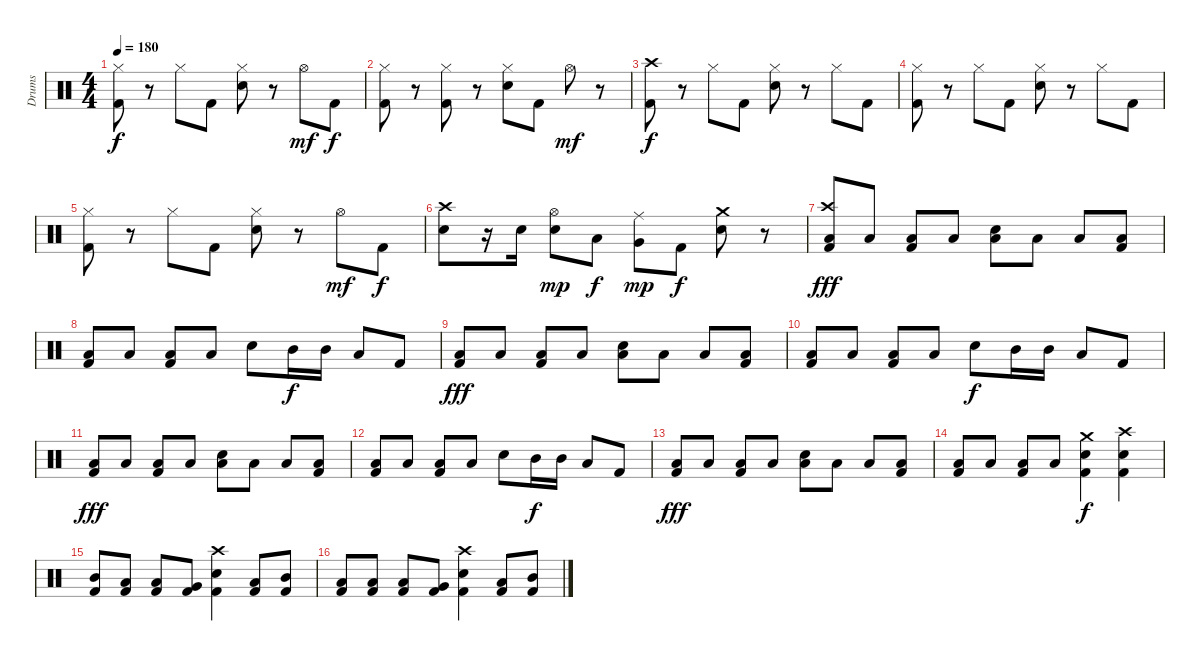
\track ("Drums" "Drums") {instrument percussion}
\staff {score}
\articulation defaults
\ts (4 4)
\tempo 180
\clef neutral
\ks c
("Hi-Hat (closed)" "Kick (hit) 2").8{dy f} r.8 "Hi-Hat (closed)".8 "Kick (hit) 2".8 ("Hi-Hat (closed)" "Electric Snare (hit)").8 r.8 "Hi-Hat (open)".8{dy mf} "Kick (hit) 2".8{dy f} |
("Hi-Hat (closed)" "Kick (hit) 2").8 r.8 ("Hi-Hat (closed)" "Kick (hit) 2").8 r.8 ("Hi-Hat (closed)" "Electric Snare (hit)").8 "Kick (hit) 2".8 "Hi-Hat (open)".8{dy mf} r.8 |
("Crash high (hit)" "Kick (hit) 2").8{dy f} r.8 "Hi-Hat (closed)".8 "Kick (hit) 2".8 ("Hi-Hat (closed)" "Electric Snare (hit)").8 r.8 "Hi-Hat (closed)".8 "Kick (hit) 2".8 |
("Hi-Hat (closed)" "Kick (hit) 2").8 r.8 "Hi-Hat (closed)".8 "Kick (hit) 2".8 ("Hi-Hat (closed)" "Electric Snare (hit)").8 r.8 "Hi-Hat (closed)".8 "Kick (hit) 2".8 |
("Hi-Hat (closed)" "Kick (hit) 2").8 r.8 "Hi-Hat (closed)".8 "Kick (hit) 2".8 ("Hi-Hat (closed)" "Electric Snare (hit)").8 r.8 "Hi-Hat (open)".8{dy mf} "Kick (hit) 2".8{dy f} |
("Crash high (hit)" "Electric Snare (hit)").8 r.16 "Electric Snare (hit)".16 ("Hi-Hat (open)" "Electric Snare (hit)").8{dy mp} "Low Tom (hit)".8{dy f} ("Ride (middle)" "Very Low Tom (hit)").8{dy mp} "Kick (hit) 2".8{dy f} ("Crash medium (hit)" "Electric Snare (hit)").8 r.8 |
("Crash high (hit)" "Kick (hit) 2" "Low Floor Tom (hit)").8{dy fff volume 16} "Low Floor Tom (hit)".8 ("Kick (hit) 2" "Low Floor Tom (hit)").8 "Low Floor Tom (hit)".8 ("Electric Snare (hit)" "Low Floor Tom (hit)").8 "Low Floor Tom (hit)".8 "Low Floor Tom (hit)".8 ("Kick (hit) 2" "Low Floor Tom (hit)").8 |
("Kick (hit) 2" "Low Floor Tom (hit)").8 "Low Floor Tom (hit)".8 ("Kick (hit) 2" "Low Floor Tom (hit)").8 "Low Floor Tom (hit)".8 "Electric Snare (hit)".8 "Mid Tom (hit)".16{dy f} "Mid Tom (hit)".16 "Low Tom (hit)".8 "Kick (hit) 2".8 |
("Kick (hit) 2" "Low Floor Tom (hit)").8{dy fff} "Low Floor Tom (hit)".8 ("Kick (hit) 2" "Low Floor Tom (hit)").8 "Low Floor Tom (hit)".8 ("Electric Snare (hit)" "Low Floor Tom (hit)").8 "Low Floor Tom (hit)".8 "Low Floor Tom (hit)".8 ("Kick (hit) 2" "Low Floor Tom (hit)").8 |
("Kick (hit) 2" "Low Floor Tom (hit)").8 "Low Floor Tom (hit)".8 ("Kick (hit) 2" "Low Floor Tom (hit)").8 "Low Floor Tom (hit)".8 "Electric Snare (hit)".8{dy f} "Mid Tom (hit)".16 "Mid Tom (hit)".16 "Low Tom (hit)".8 "Kick (hit) 2".8 |
("Kick (hit) 2" "Low Floor Tom (hit)").8{dy fff volume 16} "Low Floor Tom (hit)".8 ("Kick (hit) 2" "Low Floor Tom (hit)").8 "Low Floor Tom (hit)".8 ("Electric Snare (hit)" "Low Floor Tom (hit)").8 "Low Floor Tom (hit)".8 "Low Floor Tom (hit)".8 ("Kick (hit) 2" "Low Floor Tom (hit)").8 |
("Kick (hit) 2" "Low Floor Tom (hit)").8 "Low Floor Tom (hit)".8 ("Kick (hit) 2" "Low Floor Tom (hit)").8 "Low Floor Tom (hit)".8 "Electric Snare (hit)".8 "Mid Tom (hit)".16{dy f} "Mid Tom (hit)".16 "Low Tom (hit)".8 "Kick (hit) 2".8 |
("Kick (hit) 2" "Low Floor Tom (hit)").8{dy fff} "Low Floor Tom (hit)".8 ("Kick (hit) 2" "Low Floor Tom (hit)").8 "Low Floor Tom (hit)".8 ("Electric Snare (hit)" "Low Floor Tom (hit)").8 "Low Floor Tom (hit)".8 "Low Floor Tom (hit)".8 ("Kick (hit) 2" "Low Floor Tom (hit)").8 |
("Kick (hit) 2" "Low Floor Tom (hit)").8 "Low Floor Tom (hit)".8 ("Kick (hit) 2" "Low Floor Tom (hit)").8 "Low Floor Tom (hit)".8 ("Crash medium (hit)" "Electric Snare (hit)" "Kick (hit) 2").4{dy f} ("Crash high (hit)" "Electric Snare (hit)" "Kick (hit) 2").4 |
("Mid Tom (hit)" "Kick (hit) 2").8 ("Low Tom (hit)" "Kick (hit) 2").8 ("Low Tom (hit)" "Kick (hit) 2").8 ("Very Low Tom (hit)" "Kick (hit) 2").8 ("Crash high (hit)" "Electric Snare (hit)" "Kick (hit) 2").4 ("Low Tom (hit)" "Kick (hit) 2").8 ("Mid Tom (hit)" "Kick (hit) 2").8 |
("Low Tom (hit)" "Kick (hit) 2").8 ("Low Tom (hit)" "Kick (hit) 2").8 ("Low Tom (hit)" "Kick (hit) 2").8 ("Very Low Tom (hit)" "Kick (hit) 2").8 ("Crash high (hit)" "Electric Snare (hit)" "Kick (hit) 2").4 ("Low Tom (hit)" "Kick (hit) 2").8 ("Mid Tom (hit)" "Kick (hit) 2").8
